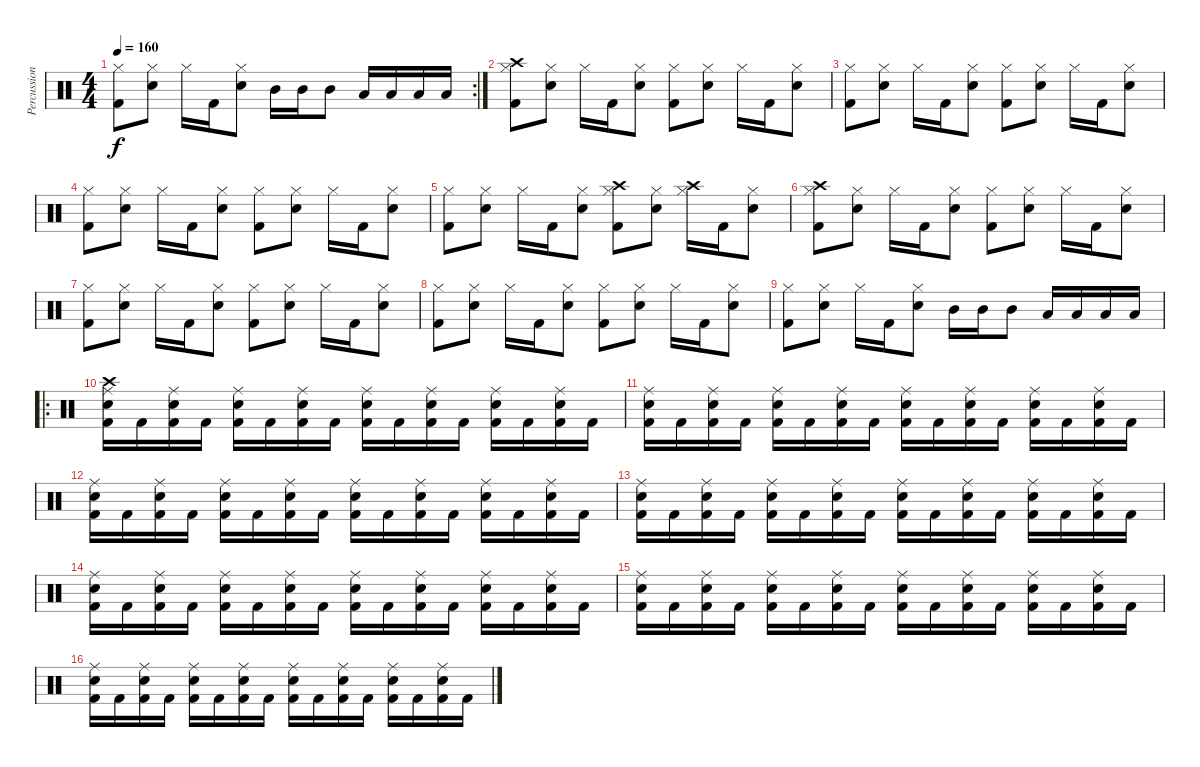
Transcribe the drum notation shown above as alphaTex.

\track ("Percussion" "Percussion") {instrument percussion}
\staff {score}
\articulation defaults
\rc 2
\ts (4 4)
\tempo 160
\clef neutral
\ks c
("Kick (hit) 2" "Hi-Hat (closed)").8{dy f} ("Hi-Hat (closed)" "Snare (hit) 2").8 "Hi-Hat (closed)".16 "Kick (hit) 2".16 ("Hi-Hat (closed)" "Snare (hit) 2").8 "Mid Tom (hit)".16 "Mid Tom (hit)".16 "Mid Tom (hit)".8 "Low Tom (hit)".16 "Low Tom (hit)".16 "Low Floor Tom (hit)".16 "Low Floor Tom (hit)".16 |
("Kick (hit) 2" "Hi-Hat (closed)" "Crash high (hit)").8 ("Hi-Hat (closed)" "Snare (hit) 2").8 "Hi-Hat (closed)".16 "Kick (hit) 2".16 ("Hi-Hat (closed)" "Snare (hit) 2").8 ("Kick (hit) 2" "Hi-Hat (closed)").8 ("Hi-Hat (closed)" "Snare (hit) 2").8 "Hi-Hat (closed)".16 "Kick (hit) 2".16 ("Hi-Hat (closed)" "Snare (hit) 2").8 |
("Kick (hit) 2" "Hi-Hat (closed)").8 ("Hi-Hat (closed)" "Snare (hit) 2").8 "Hi-Hat (closed)".16 "Kick (hit) 2".16 ("Hi-Hat (closed)" "Snare (hit) 2").8 ("Kick (hit) 2" "Hi-Hat (closed)").8 ("Hi-Hat (closed)" "Snare (hit) 2").8 "Hi-Hat (closed)".16 "Kick (hit) 2".16 ("Hi-Hat (closed)" "Snare (hit) 2").8 |
("Kick (hit) 2" "Hi-Hat (closed)").8 ("Hi-Hat (closed)" "Snare (hit) 2").8 "Hi-Hat (closed)".16 "Kick (hit) 2".16 ("Hi-Hat (closed)" "Snare (hit) 2").8 ("Kick (hit) 2" "Hi-Hat (closed)").8 ("Hi-Hat (closed)" "Snare (hit) 2").8 "Hi-Hat (closed)".16 "Kick (hit) 2".16 ("Hi-Hat (closed)" "Snare (hit) 2").8 |
("Kick (hit) 2" "Hi-Hat (closed)").8 ("Hi-Hat (closed)" "Snare (hit) 2").8 "Hi-Hat (closed)".16 "Kick (hit) 2".16 ("Hi-Hat (closed)" "Snare (hit) 2").8 ("Kick (hit) 2" "Hi-Hat (closed)" "Crash high (hit)").8 ("Hi-Hat (closed)" "Snare (hit) 2").8 ("Hi-Hat (closed)" "Crash high (hit)").16 "Kick (hit) 2".16 ("Hi-Hat (closed)" "Snare (hit) 2").8 |
("Kick (hit) 2" "Hi-Hat (closed)" "Crash high (hit)").8 ("Hi-Hat (closed)" "Snare (hit) 2").8 "Hi-Hat (closed)".16 "Kick (hit) 2".16 ("Hi-Hat (closed)" "Snare (hit) 2").8 ("Kick (hit) 2" "Hi-Hat (closed)").8 ("Hi-Hat (closed)" "Snare (hit) 2").8 "Hi-Hat (closed)".16 "Kick (hit) 2".16 ("Hi-Hat (closed)" "Snare (hit) 2").8 |
("Kick (hit) 2" "Hi-Hat (closed)").8 ("Hi-Hat (closed)" "Snare (hit) 2").8 "Hi-Hat (closed)".16 "Kick (hit) 2".16 ("Hi-Hat (closed)" "Snare (hit) 2").8 ("Kick (hit) 2" "Hi-Hat (closed)").8 ("Hi-Hat (closed)" "Snare (hit) 2").8 "Hi-Hat (closed)".16 "Kick (hit) 2".16 ("Hi-Hat (closed)" "Snare (hit) 2").8 |
("Kick (hit) 2" "Hi-Hat (closed)").8 ("Hi-Hat (closed)" "Snare (hit) 2").8 "Hi-Hat (closed)".16 "Kick (hit) 2".16 ("Hi-Hat (closed)" "Snare (hit) 2").8 ("Kick (hit) 2" "Hi-Hat (closed)").8 ("Hi-Hat (closed)" "Snare (hit) 2").8 "Hi-Hat (closed)".16 "Kick (hit) 2".16 ("Hi-Hat (closed)" "Snare (hit) 2").8 |
("Kick (hit) 2" "Hi-Hat (closed)").8 ("Hi-Hat (closed)" "Snare (hit) 2").8 "Hi-Hat (closed)".16 "Kick (hit) 2".16 ("Hi-Hat (closed)" "Snare (hit) 2").8 "Mid Tom (hit)".16 "Mid Tom (hit)".16 "Mid Tom (hit)".8 "Low Tom (hit)".16 "Low Tom (hit)".16 "Low Floor Tom (hit)".16 "Low Floor Tom (hit)".16 |
\ro
("Kick (hit) 2" "Snare (hit) 2" "Ride (middle)" "Crash high (hit)").16 "Kick (hit) 2".16 ("Kick (hit) 2" "Snare (hit) 2" "Ride (middle)").16 "Kick (hit) 2".16 ("Kick (hit) 2" "Snare (hit) 2" "Ride (middle)").16 "Kick (hit) 2".16 ("Kick (hit) 2" "Snare (hit) 2" "Ride (middle)").16 "Kick (hit) 2".16 ("Kick (hit) 2" "Snare (hit) 2" "Ride (middle)").16 "Kick (hit) 2".16 ("Kick (hit) 2" "Snare (hit) 2" "Ride (middle)").16 "Kick (hit) 2".16 ("Kick (hit) 2" "Snare (hit) 2" "Ride (middle)").16 "Kick (hit) 2".16 ("Kick (hit) 2" "Snare (hit) 2" "Ride (middle)").16 "Kick (hit) 2".16 |
("Kick (hit) 2" "Snare (hit) 2" "Ride (middle)").16 "Kick (hit) 2".16 ("Kick (hit) 2" "Snare (hit) 2" "Ride (middle)").16 "Kick (hit) 2".16 ("Kick (hit) 2" "Snare (hit) 2" "Ride (middle)").16 "Kick (hit) 2".16 ("Kick (hit) 2" "Snare (hit) 2" "Ride (middle)").16 "Kick (hit) 2".16 ("Kick (hit) 2" "Snare (hit) 2" "Ride (middle)").16 "Kick (hit) 2".16 ("Kick (hit) 2" "Snare (hit) 2" "Ride (middle)").16 "Kick (hit) 2".16 ("Kick (hit) 2" "Snare (hit) 2" "Ride (middle)").16 "Kick (hit) 2".16 ("Kick (hit) 2" "Snare (hit) 2" "Ride (middle)").16 "Kick (hit) 2".16 |
("Kick (hit) 2" "Snare (hit) 2" "Ride (middle)").16 "Kick (hit) 2".16 ("Kick (hit) 2" "Snare (hit) 2" "Ride (middle)").16 "Kick (hit) 2".16 ("Kick (hit) 2" "Snare (hit) 2" "Ride (middle)").16 "Kick (hit) 2".16 ("Kick (hit) 2" "Snare (hit) 2" "Ride (middle)").16 "Kick (hit) 2".16 ("Kick (hit) 2" "Snare (hit) 2" "Ride (middle)").16 "Kick (hit) 2".16 ("Kick (hit) 2" "Snare (hit) 2" "Ride (middle)").16 "Kick (hit) 2".16 ("Kick (hit) 2" "Snare (hit) 2" "Ride (middle)").16 "Kick (hit) 2".16 ("Kick (hit) 2" "Snare (hit) 2" "Ride (middle)").16 "Kick (hit) 2".16 |
("Kick (hit) 2" "Snare (hit) 2" "Ride (middle)").16 "Kick (hit) 2".16 ("Kick (hit) 2" "Snare (hit) 2" "Ride (middle)").16 "Kick (hit) 2".16 ("Kick (hit) 2" "Snare (hit) 2" "Ride (middle)").16 "Kick (hit) 2".16 ("Kick (hit) 2" "Snare (hit) 2" "Ride (middle)").16 "Kick (hit) 2".16 ("Kick (hit) 2" "Snare (hit) 2" "Ride (middle)").16 "Kick (hit) 2".16 ("Kick (hit) 2" "Snare (hit) 2" "Ride (middle)").16 "Kick (hit) 2".16 ("Kick (hit) 2" "Snare (hit) 2" "Ride (middle)").16 "Kick (hit) 2".16 ("Kick (hit) 2" "Snare (hit) 2" "Ride (middle)").16 "Kick (hit) 2".16 |
("Kick (hit) 2" "Snare (hit) 2" "Ride (middle)").16 "Kick (hit) 2".16 ("Kick (hit) 2" "Snare (hit) 2" "Ride (middle)").16 "Kick (hit) 2".16 ("Kick (hit) 2" "Snare (hit) 2" "Ride (middle)").16 "Kick (hit) 2".16 ("Kick (hit) 2" "Snare (hit) 2" "Ride (middle)").16 "Kick (hit) 2".16 ("Kick (hit) 2" "Snare (hit) 2" "Ride (middle)").16 "Kick (hit) 2".16 ("Kick (hit) 2" "Snare (hit) 2" "Ride (middle)").16 "Kick (hit) 2".16 ("Kick (hit) 2" "Snare (hit) 2" "Ride (middle)").16 "Kick (hit) 2".16 ("Kick (hit) 2" "Snare (hit) 2" "Ride (middle)").16 "Kick (hit) 2".16 |
("Kick (hit) 2" "Snare (hit) 2" "Ride (middle)").16 "Kick (hit) 2".16 ("Kick (hit) 2" "Snare (hit) 2" "Ride (middle)").16 "Kick (hit) 2".16 ("Kick (hit) 2" "Snare (hit) 2" "Ride (middle)").16 "Kick (hit) 2".16 ("Kick (hit) 2" "Snare (hit) 2" "Ride (middle)").16 "Kick (hit) 2".16 ("Kick (hit) 2" "Snare (hit) 2" "Ride (middle)").16 "Kick (hit) 2".16 ("Kick (hit) 2" "Snare (hit) 2" "Ride (middle)").16 "Kick (hit) 2".16 ("Kick (hit) 2" "Snare (hit) 2" "Ride (middle)").16 "Kick (hit) 2".16 ("Kick (hit) 2" "Snare (hit) 2" "Ride (middle)").16 "Kick (hit) 2".16 |
("Kick (hit) 2" "Snare (hit) 2" "Ride (middle)").16 "Kick (hit) 2".16 ("Kick (hit) 2" "Snare (hit) 2" "Ride (middle)").16 "Kick (hit) 2".16 ("Kick (hit) 2" "Snare (hit) 2" "Ride (middle)").16 "Kick (hit) 2".16 ("Kick (hit) 2" "Snare (hit) 2" "Ride (middle)").16 "Kick (hit) 2".16 ("Kick (hit) 2" "Snare (hit) 2" "Ride (middle)").16 "Kick (hit) 2".16 ("Kick (hit) 2" "Snare (hit) 2" "Ride (middle)").16 "Kick (hit) 2".16 ("Kick (hit) 2" "Snare (hit) 2" "Ride (middle)").16 "Kick (hit) 2".16 ("Kick (hit) 2" "Snare (hit) 2" "Ride (middle)").16 "Kick (hit) 2".16
